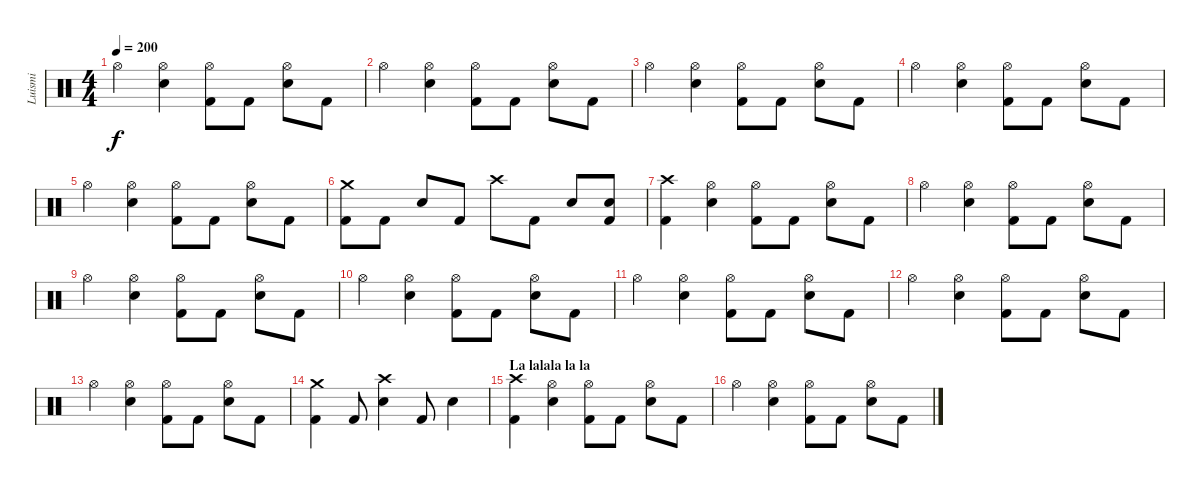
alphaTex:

\track ("Luismi" "Luismi") {instrument percussion}
\staff {score}
\articulation defaults
\ts (4 4)
\tempo 200
\clef neutral
\ks c "Hi-Hat (open)".4{dy f}
("Hi-Hat (open)" "Snare (hit) 2").4 ("Hi-Hat (open)" "Kick (hit) 2").8 "Kick (hit) 2".8 ("Hi-Hat (open)" "Snare (hit) 2").8 "Kick (hit) 2".8 |
"Hi-Hat (open)".4 ("Hi-Hat (open)" "Snare (hit) 2").4 ("Hi-Hat (open)" "Kick (hit) 2").8 "Kick (hit) 2".8 ("Hi-Hat (open)" "Snare (hit) 2").8 "Kick (hit) 2".8 |
"Hi-Hat (open)".4 ("Hi-Hat (open)" "Snare (hit) 2").4 ("Hi-Hat (open)" "Kick (hit) 2").8 "Kick (hit) 2".8 ("Hi-Hat (open)" "Snare (hit) 2").8 "Kick (hit) 2".8 |
"Hi-Hat (open)".4 ("Hi-Hat (open)" "Snare (hit) 2").4 ("Hi-Hat (open)" "Kick (hit) 2").8 "Kick (hit) 2".8 ("Hi-Hat (open)" "Snare (hit) 2").8 "Kick (hit) 2".8 |
"Hi-Hat (open)".4 ("Hi-Hat (open)" "Snare (hit) 2").4 ("Hi-Hat (open)" "Kick (hit) 2").8 "Kick (hit) 2".8 ("Hi-Hat (open)" "Snare (hit) 2").8 "Kick (hit) 2".8 |
("Crash medium (hit)" "Kick (hit) 2").8 "Kick (hit) 2".8 "Snare (hit) 2".8 "Kick (hit) 2".8 "Crash high (hit)".8 "Kick (hit) 2".8 "Snare (hit) 2".8 ("Snare (hit) 2" "Kick (hit) 2").8 |
("Crash high (hit)" "Kick (hit) 2").4 ("Hi-Hat (open)" "Snare (hit) 2").4 ("Hi-Hat (open)" "Kick (hit) 2").8 "Kick (hit) 2".8 ("Hi-Hat (open)" "Snare (hit) 2").8 "Kick (hit) 2".8 |
"Hi-Hat (open)".4 ("Hi-Hat (open)" "Snare (hit) 2").4 ("Hi-Hat (open)" "Kick (hit) 2").8 "Kick (hit) 2".8 ("Hi-Hat (open)" "Snare (hit) 2").8 "Kick (hit) 2".8 |
"Hi-Hat (open)".4 ("Hi-Hat (open)" "Snare (hit) 2").4 ("Hi-Hat (open)" "Kick (hit) 2").8 "Kick (hit) 2".8 ("Hi-Hat (open)" "Snare (hit) 2").8 "Kick (hit) 2".8 |
"Hi-Hat (open)".4 ("Hi-Hat (open)" "Snare (hit) 2").4 ("Hi-Hat (open)" "Kick (hit) 2").8 "Kick (hit) 2".8 ("Hi-Hat (open)" "Snare (hit) 2").8 "Kick (hit) 2".8 |
"Hi-Hat (open)".4 ("Hi-Hat (open)" "Snare (hit) 2").4 ("Hi-Hat (open)" "Kick (hit) 2").8 "Kick (hit) 2".8 ("Hi-Hat (open)" "Snare (hit) 2").8 "Kick (hit) 2".8 |
"Hi-Hat (open)".4 ("Hi-Hat (open)" "Snare (hit) 2").4 ("Hi-Hat (open)" "Kick (hit) 2").8 "Kick (hit) 2".8 ("Hi-Hat (open)" "Snare (hit) 2").8 "Kick (hit) 2".8 |
"Hi-Hat (open)".4 ("Hi-Hat (open)" "Snare (hit) 2").4 ("Hi-Hat (open)" "Kick (hit) 2").8 "Kick (hit) 2".8 ("Hi-Hat (open)" "Snare (hit) 2").8 "Kick (hit) 2".8 |
("Crash medium (hit)" "Kick (hit) 2").4 "Kick (hit) 2".8 ("Crash high (hit)" "Snare (hit) 2").4 "Kick (hit) 2".8 "Snare (hit) 2".4 |
\section ("" "La lalala la la")
("Crash high (hit)" "Kick (hit) 2").4 ("Hi-Hat (open)" "Snare (hit) 2").4 ("Hi-Hat (open)" "Kick (hit) 2").8 "Kick (hit) 2".8 ("Hi-Hat (open)" "Snare (hit) 2").8 "Kick (hit) 2".8 |
"Hi-Hat (open)".4 ("Hi-Hat (open)" "Snare (hit) 2").4 ("Hi-Hat (open)" "Kick (hit) 2").8 "Kick (hit) 2".8 ("Hi-Hat (open)" "Snare (hit) 2").8 "Kick (hit) 2".8
